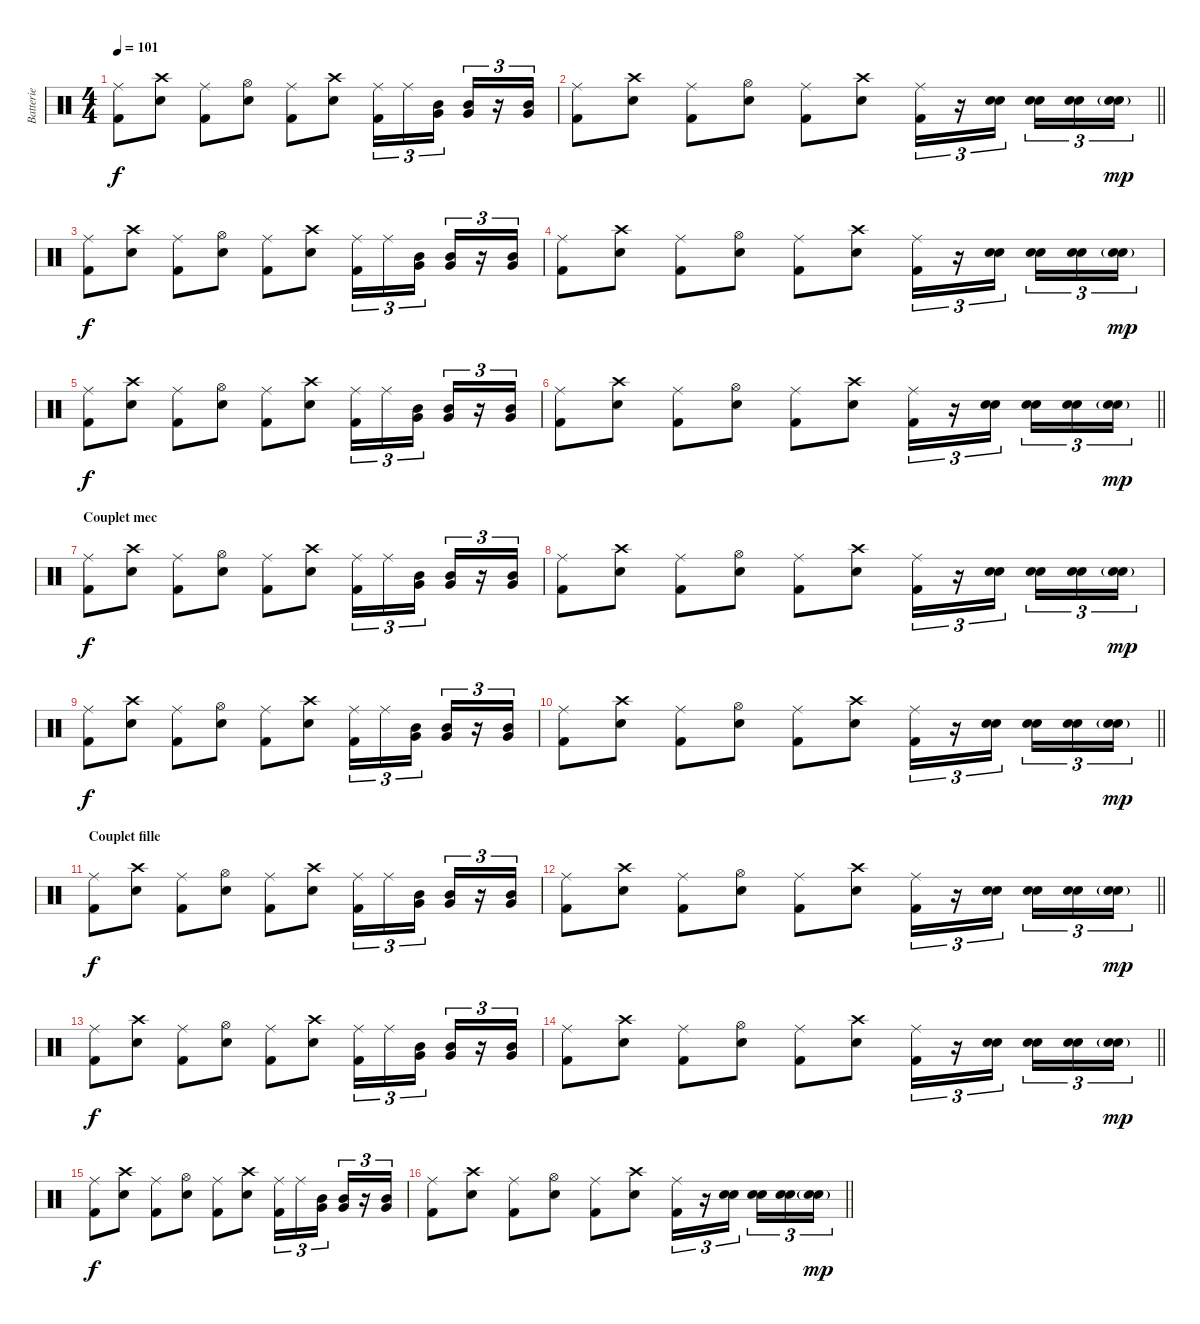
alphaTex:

\track ("Batterie" "Batterie") {instrument percussion}
\staff {score}
\articulation defaults
\ts (4 4)
\tempo 101
\clef neutral
\ks c
("Ride (middle)" "Kick (hit) 2").8{dy f} ("Crash high (hit)" "Electric Snare (hit)").8 ("Ride (middle)" "Kick (hit) 2").8 ("Hi-Hat (open)" "Electric Snare (hit)").8 ("Ride (middle)" "Kick (hit) 2").8 ("Crash high (hit)" "Electric Snare (hit)").8 ("Ride (middle)" "Kick (hit) 2").16{tu (3 2)} "Ride (middle)".16{tu (3 2)} ("Very Low Tom (hit)" "Mid Tom (hit)").16{tu (3 2) beam splitsecondary} ("Very Low Tom (hit)" "Mid Tom (hit)").16{tu (3 2)} r.16{tu (3 2)} ("Very Low Tom (hit)" "Mid Tom (hit)").16{tu (3 2)} |
\barLineRight lightlight
("Ride (middle)" "Kick (hit) 2").8 ("Crash high (hit)" "Electric Snare (hit)").8 ("Ride (middle)" "Kick (hit) 2").8 ("Hi-Hat (open)" "Electric Snare (hit)").8 ("Ride (middle)" "Kick (hit) 2").8 ("Crash high (hit)" "Electric Snare (hit)").8 ("Ride (middle)" "Kick (hit) 2").16{tu (3 2)} r.16{tu (3 2)} ("Snare (hit) 2" "Electric Snare (hit)").16{tu (3 2) beam splitsecondary} ("Snare (hit) 2" "Electric Snare (hit)").16{tu (3 2)} ("Snare (hit) 2" "Electric Snare (hit)").16{tu (3 2)} ("Snare (hit) 2"{g} "Electric Snare (hit)"{g}).16{tu (3 2) dy mp} |
("Ride (middle)" "Kick (hit) 2").8{dy f} ("Crash high (hit)" "Electric Snare (hit)").8 ("Ride (middle)" "Kick (hit) 2").8 ("Hi-Hat (open)" "Electric Snare (hit)").8 ("Ride (middle)" "Kick (hit) 2").8 ("Crash high (hit)" "Electric Snare (hit)").8 ("Ride (middle)" "Kick (hit) 2").16{tu (3 2)} "Ride (middle)".16{tu (3 2)} ("Very Low Tom (hit)" "Mid Tom (hit)").16{tu (3 2) beam splitsecondary} ("Very Low Tom (hit)" "Mid Tom (hit)").16{tu (3 2)} r.16{tu (3 2)} ("Very Low Tom (hit)" "Mid Tom (hit)").16{tu (3 2)} |
("Ride (middle)" "Kick (hit) 2").8 ("Crash high (hit)" "Electric Snare (hit)").8 ("Ride (middle)" "Kick (hit) 2").8 ("Hi-Hat (open)" "Electric Snare (hit)").8 ("Ride (middle)" "Kick (hit) 2").8 ("Crash high (hit)" "Electric Snare (hit)").8 ("Ride (middle)" "Kick (hit) 2").16{tu (3 2)} r.16{tu (3 2)} ("Snare (hit) 2" "Electric Snare (hit)").16{tu (3 2) beam splitsecondary} ("Snare (hit) 2" "Electric Snare (hit)").16{tu (3 2)} ("Snare (hit) 2" "Electric Snare (hit)").16{tu (3 2)} ("Snare (hit) 2"{g} "Electric Snare (hit)"{g}).16{tu (3 2) dy mp} |
("Ride (middle)" "Kick (hit) 2").8{dy f} ("Crash high (hit)" "Electric Snare (hit)").8 ("Ride (middle)" "Kick (hit) 2").8 ("Hi-Hat (open)" "Electric Snare (hit)").8 ("Ride (middle)" "Kick (hit) 2").8 ("Crash high (hit)" "Electric Snare (hit)").8 ("Ride (middle)" "Kick (hit) 2").16{tu (3 2)} "Ride (middle)".16{tu (3 2)} ("Very Low Tom (hit)" "Mid Tom (hit)").16{tu (3 2) beam splitsecondary} ("Very Low Tom (hit)" "Mid Tom (hit)").16{tu (3 2)} r.16{tu (3 2)} ("Very Low Tom (hit)" "Mid Tom (hit)").16{tu (3 2)} |
\barLineRight lightlight
("Ride (middle)" "Kick (hit) 2").8 ("Crash high (hit)" "Electric Snare (hit)").8 ("Ride (middle)" "Kick (hit) 2").8 ("Hi-Hat (open)" "Electric Snare (hit)").8 ("Ride (middle)" "Kick (hit) 2").8 ("Crash high (hit)" "Electric Snare (hit)").8 ("Ride (middle)" "Kick (hit) 2").16{tu (3 2)} r.16{tu (3 2)} ("Snare (hit) 2" "Electric Snare (hit)").16{tu (3 2) beam splitsecondary} ("Snare (hit) 2" "Electric Snare (hit)").16{tu (3 2)} ("Snare (hit) 2" "Electric Snare (hit)").16{tu (3 2)} ("Snare (hit) 2"{g} "Electric Snare (hit)"{g}).16{tu (3 2) dy mp} |
\section ("" "Couplet mec")
("Ride (middle)" "Kick (hit) 2").8{dy f} ("Crash high (hit)" "Electric Snare (hit)").8 ("Ride (middle)" "Kick (hit) 2").8 ("Hi-Hat (open)" "Electric Snare (hit)").8 ("Ride (middle)" "Kick (hit) 2").8 ("Crash high (hit)" "Electric Snare (hit)").8 ("Ride (middle)" "Kick (hit) 2").16{tu (3 2)} "Ride (middle)".16{tu (3 2)} ("Very Low Tom (hit)" "Mid Tom (hit)").16{tu (3 2) beam splitsecondary} ("Very Low Tom (hit)" "Mid Tom (hit)").16{tu (3 2)} r.16{tu (3 2)} ("Very Low Tom (hit)" "Mid Tom (hit)").16{tu (3 2)} |
("Ride (middle)" "Kick (hit) 2").8 ("Crash high (hit)" "Electric Snare (hit)").8 ("Ride (middle)" "Kick (hit) 2").8 ("Hi-Hat (open)" "Electric Snare (hit)").8 ("Ride (middle)" "Kick (hit) 2").8 ("Crash high (hit)" "Electric Snare (hit)").8 ("Ride (middle)" "Kick (hit) 2").16{tu (3 2)} r.16{tu (3 2)} ("Snare (hit) 2" "Electric Snare (hit)").16{tu (3 2) beam splitsecondary} ("Snare (hit) 2" "Electric Snare (hit)").16{tu (3 2)} ("Snare (hit) 2" "Electric Snare (hit)").16{tu (3 2)} ("Snare (hit) 2"{g} "Electric Snare (hit)"{g}).16{tu (3 2) dy mp} |
("Ride (middle)" "Kick (hit) 2").8{dy f} ("Crash high (hit)" "Electric Snare (hit)").8 ("Ride (middle)" "Kick (hit) 2").8 ("Hi-Hat (open)" "Electric Snare (hit)").8 ("Ride (middle)" "Kick (hit) 2").8 ("Crash high (hit)" "Electric Snare (hit)").8 ("Ride (middle)" "Kick (hit) 2").16{tu (3 2)} "Ride (middle)".16{tu (3 2)} ("Very Low Tom (hit)" "Mid Tom (hit)").16{tu (3 2) beam splitsecondary} ("Very Low Tom (hit)" "Mid Tom (hit)").16{tu (3 2)} r.16{tu (3 2)} ("Very Low Tom (hit)" "Mid Tom (hit)").16{tu (3 2)} |
\barLineRight lightlight
("Ride (middle)" "Kick (hit) 2").8 ("Crash high (hit)" "Electric Snare (hit)").8 ("Ride (middle)" "Kick (hit) 2").8 ("Hi-Hat (open)" "Electric Snare (hit)").8 ("Ride (middle)" "Kick (hit) 2").8 ("Crash high (hit)" "Electric Snare (hit)").8 ("Ride (middle)" "Kick (hit) 2").16{tu (3 2)} r.16{tu (3 2)} ("Snare (hit) 2" "Electric Snare (hit)").16{tu (3 2) beam splitsecondary} ("Snare (hit) 2" "Electric Snare (hit)").16{tu (3 2)} ("Snare (hit) 2" "Electric Snare (hit)").16{tu (3 2)} ("Snare (hit) 2"{g} "Electric Snare (hit)"{g}).16{tu (3 2) dy mp} |
\section ("" "Couplet fille")
("Ride (middle)" "Kick (hit) 2").8{dy f} ("Crash high (hit)" "Electric Snare (hit)").8 ("Ride (middle)" "Kick (hit) 2").8 ("Hi-Hat (open)" "Electric Snare (hit)").8 ("Ride (middle)" "Kick (hit) 2").8 ("Crash high (hit)" "Electric Snare (hit)").8 ("Ride (middle)" "Kick (hit) 2").16{tu (3 2)} "Ride (middle)".16{tu (3 2)} ("Very Low Tom (hit)" "Mid Tom (hit)").16{tu (3 2) beam splitsecondary} ("Very Low Tom (hit)" "Mid Tom (hit)").16{tu (3 2)} r.16{tu (3 2)} ("Very Low Tom (hit)" "Mid Tom (hit)").16{tu (3 2)} |
\barLineRight lightlight
("Ride (middle)" "Kick (hit) 2").8 ("Crash high (hit)" "Electric Snare (hit)").8 ("Ride (middle)" "Kick (hit) 2").8 ("Hi-Hat (open)" "Electric Snare (hit)").8 ("Ride (middle)" "Kick (hit) 2").8 ("Crash high (hit)" "Electric Snare (hit)").8 ("Ride (middle)" "Kick (hit) 2").16{tu (3 2)} r.16{tu (3 2)} ("Snare (hit) 2" "Electric Snare (hit)").16{tu (3 2) beam splitsecondary} ("Snare (hit) 2" "Electric Snare (hit)").16{tu (3 2)} ("Snare (hit) 2" "Electric Snare (hit)").16{tu (3 2)} ("Snare (hit) 2"{g} "Electric Snare (hit)"{g}).16{tu (3 2) dy mp} |
("Ride (middle)" "Kick (hit) 2").8{dy f} ("Crash high (hit)" "Electric Snare (hit)").8 ("Ride (middle)" "Kick (hit) 2").8 ("Hi-Hat (open)" "Electric Snare (hit)").8 ("Ride (middle)" "Kick (hit) 2").8 ("Crash high (hit)" "Electric Snare (hit)").8 ("Ride (middle)" "Kick (hit) 2").16{tu (3 2)} "Ride (middle)".16{tu (3 2)} ("Very Low Tom (hit)" "Mid Tom (hit)").16{tu (3 2) beam splitsecondary} ("Very Low Tom (hit)" "Mid Tom (hit)").16{tu (3 2)} r.16{tu (3 2)} ("Very Low Tom (hit)" "Mid Tom (hit)").16{tu (3 2)} |
\barLineRight lightlight
("Ride (middle)" "Kick (hit) 2").8 ("Crash high (hit)" "Electric Snare (hit)").8 ("Ride (middle)" "Kick (hit) 2").8 ("Hi-Hat (open)" "Electric Snare (hit)").8 ("Ride (middle)" "Kick (hit) 2").8 ("Crash high (hit)" "Electric Snare (hit)").8 ("Ride (middle)" "Kick (hit) 2").16{tu (3 2)} r.16{tu (3 2)} ("Snare (hit) 2" "Electric Snare (hit)").16{tu (3 2) beam splitsecondary} ("Snare (hit) 2" "Electric Snare (hit)").16{tu (3 2)} ("Snare (hit) 2" "Electric Snare (hit)").16{tu (3 2)} ("Snare (hit) 2"{g} "Electric Snare (hit)"{g}).16{tu (3 2) dy mp} |
("Ride (middle)" "Kick (hit) 2").8{dy f} ("Crash high (hit)" "Electric Snare (hit)").8 ("Ride (middle)" "Kick (hit) 2").8 ("Hi-Hat (open)" "Electric Snare (hit)").8 ("Ride (middle)" "Kick (hit) 2").8 ("Crash high (hit)" "Electric Snare (hit)").8 ("Ride (middle)" "Kick (hit) 2").16{tu (3 2)} "Ride (middle)".16{tu (3 2)} ("Very Low Tom (hit)" "Mid Tom (hit)").16{tu (3 2) beam splitsecondary} ("Very Low Tom (hit)" "Mid Tom (hit)").16{tu (3 2)} r.16{tu (3 2)} ("Very Low Tom (hit)" "Mid Tom (hit)").16{tu (3 2)} |
\barLineRight lightlight
("Ride (middle)" "Kick (hit) 2").8 ("Crash high (hit)" "Electric Snare (hit)").8 ("Ride (middle)" "Kick (hit) 2").8 ("Hi-Hat (open)" "Electric Snare (hit)").8 ("Ride (middle)" "Kick (hit) 2").8 ("Crash high (hit)" "Electric Snare (hit)").8 ("Ride (middle)" "Kick (hit) 2").16{tu (3 2)} r.16{tu (3 2)} ("Snare (hit) 2" "Electric Snare (hit)").16{tu (3 2) beam splitsecondary} ("Snare (hit) 2" "Electric Snare (hit)").16{tu (3 2)} ("Snare (hit) 2" "Electric Snare (hit)").16{tu (3 2)} ("Snare (hit) 2"{g} "Electric Snare (hit)"{g}).16{tu (3 2) dy mp}
